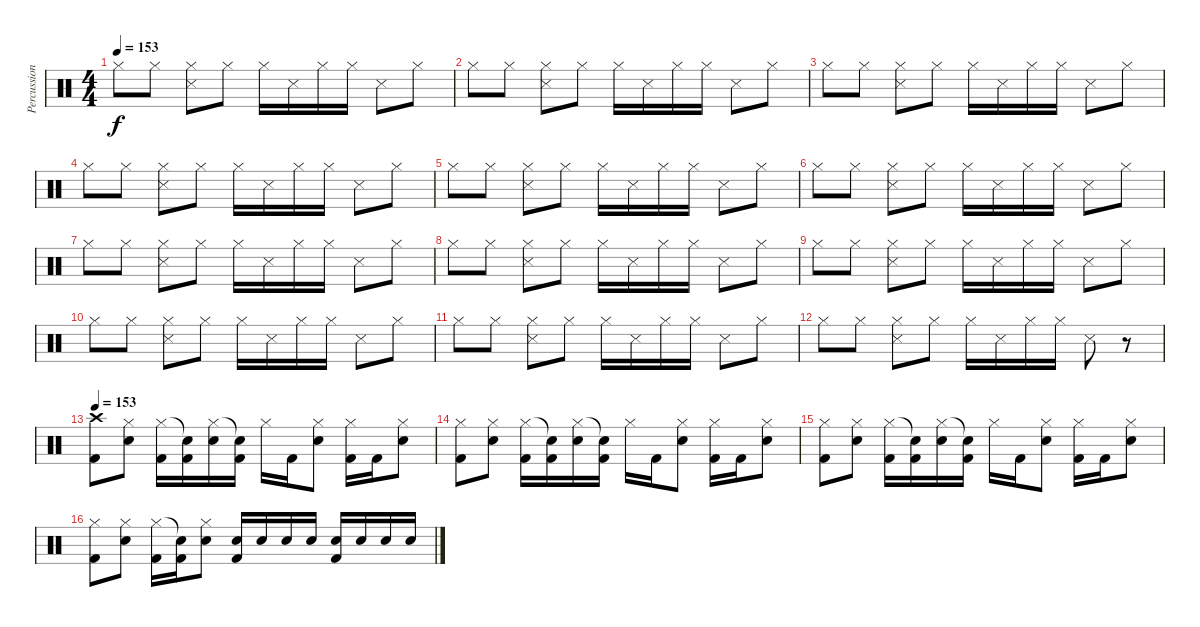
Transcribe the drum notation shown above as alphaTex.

\track ("Percussion" "Percussion") {instrument percussion}
\staff {score}
\articulation defaults
\ts (4 4)
\tempo 153
\clef neutral
\ks c "Hi-Hat (closed)".8{dy f} "Hi-Hat (closed)".8
("Hi-Hat (closed)" "Snare (side stick) 3").8 "Hi-Hat (closed)".8 "Hi-Hat (closed)".16 "Snare (side stick) 3".16 "Hi-Hat (closed)".16 "Hi-Hat (closed)".16 "Snare (side stick) 3".8 "Hi-Hat (closed)".8 |
"Hi-Hat (closed)".8 "Hi-Hat (closed)".8 ("Hi-Hat (closed)" "Snare (side stick) 3").8 "Hi-Hat (closed)".8 "Hi-Hat (closed)".16 "Snare (side stick) 3".16 "Hi-Hat (closed)".16 "Hi-Hat (closed)".16 "Snare (side stick) 3".8 "Hi-Hat (closed)".8 |
"Hi-Hat (closed)".8 "Hi-Hat (closed)".8 ("Hi-Hat (closed)" "Snare (side stick) 3").8 "Hi-Hat (closed)".8 "Hi-Hat (closed)".16 "Snare (side stick) 3".16 "Hi-Hat (closed)".16 "Hi-Hat (closed)".16 "Snare (side stick) 3".8 "Hi-Hat (closed)".8 |
"Hi-Hat (closed)".8 "Hi-Hat (closed)".8 ("Hi-Hat (closed)" "Snare (side stick) 3").8 "Hi-Hat (closed)".8 "Hi-Hat (closed)".16 "Snare (side stick) 3".16 "Hi-Hat (closed)".16 "Hi-Hat (closed)".16 "Snare (side stick) 3".8 "Hi-Hat (closed)".8 |
"Hi-Hat (closed)".8 "Hi-Hat (closed)".8 ("Hi-Hat (closed)" "Snare (side stick) 3").8 "Hi-Hat (closed)".8 "Hi-Hat (closed)".16 "Snare (side stick) 3".16 "Hi-Hat (closed)".16 "Hi-Hat (closed)".16 "Snare (side stick) 3".8 "Hi-Hat (closed)".8 |
"Hi-Hat (closed)".8 "Hi-Hat (closed)".8 ("Hi-Hat (closed)" "Snare (side stick) 3").8 "Hi-Hat (closed)".8 "Hi-Hat (closed)".16 "Snare (side stick) 3".16 "Hi-Hat (closed)".16 "Hi-Hat (closed)".16 "Snare (side stick) 3".8 "Hi-Hat (closed)".8 |
"Hi-Hat (closed)".8 "Hi-Hat (closed)".8 ("Hi-Hat (closed)" "Snare (side stick) 3").8 "Hi-Hat (closed)".8 "Hi-Hat (closed)".16 "Snare (side stick) 3".16 "Hi-Hat (closed)".16 "Hi-Hat (closed)".16 "Snare (side stick) 3".8 "Hi-Hat (closed)".8 |
"Hi-Hat (closed)".8 "Hi-Hat (closed)".8 ("Hi-Hat (closed)" "Snare (side stick) 3").8 "Hi-Hat (closed)".8 "Hi-Hat (closed)".16 "Snare (side stick) 3".16 "Hi-Hat (closed)".16 "Hi-Hat (closed)".16 "Snare (side stick) 3".8 "Hi-Hat (closed)".8 |
"Hi-Hat (closed)".8 "Hi-Hat (closed)".8 ("Hi-Hat (closed)" "Snare (side stick) 3").8 "Hi-Hat (closed)".8 "Hi-Hat (closed)".16 "Snare (side stick) 3".16 "Hi-Hat (closed)".16 "Hi-Hat (closed)".16 "Snare (side stick) 3".8 "Hi-Hat (closed)".8 |
"Hi-Hat (closed)".8 "Hi-Hat (closed)".8 ("Hi-Hat (closed)" "Snare (side stick) 3").8 "Hi-Hat (closed)".8 "Hi-Hat (closed)".16 "Snare (side stick) 3".16 "Hi-Hat (closed)".16 "Hi-Hat (closed)".16 "Snare (side stick) 3".8 "Hi-Hat (closed)".8 |
"Hi-Hat (closed)".8 "Hi-Hat (closed)".8 ("Hi-Hat (closed)" "Snare (side stick) 3").8 "Hi-Hat (closed)".8 "Hi-Hat (closed)".16 "Snare (side stick) 3".16 "Hi-Hat (closed)".16 "Hi-Hat (closed)".16 "Snare (side stick) 3".8 "Hi-Hat (closed)".8 |
"Hi-Hat (closed)".8 "Hi-Hat (closed)".8 ("Hi-Hat (closed)" "Snare (side stick) 3").8 "Hi-Hat (closed)".8 "Hi-Hat (closed)".16 "Snare (side stick) 3".16 "Hi-Hat (closed)".16 "Hi-Hat (closed)".16 "Snare (side stick) 3".8 r.8 |
\tempo 153
("Crash high (hit)" "Kick (hit) 2").8 ("Hi-Hat (closed)" "Snare (hit) 2").8 ("Hi-Hat (closed)" "Kick (hit) 2").16 ("Snare (hit)"{t} "Kick (hit) 2").16 ("Hi-Hat (closed)" "Snare (hit) 2").16 ("Snare (hit)"{t} "Kick (hit) 2").16 "Hi-Hat (closed)".16 "Kick (hit) 2".16 ("Hi-Hat (closed)" "Snare (hit) 2").8 ("Hi-Hat (closed)" "Kick (hit) 2").16 "Kick (hit) 2".16 ("Hi-Hat (closed)" "Snare (hit) 2").8 |
("Hi-Hat (closed)" "Kick (hit) 2").8 ("Hi-Hat (closed)" "Snare (hit) 2").8 ("Hi-Hat (closed)" "Kick (hit) 2").16 ("Snare (hit)"{t} "Kick (hit) 2").16 ("Hi-Hat (closed)" "Snare (hit) 2").16 ("Snare (hit)"{t} "Kick (hit) 2").16 "Hi-Hat (closed)".16 "Kick (hit) 2".16 ("Hi-Hat (closed)" "Snare (hit) 2").8 ("Hi-Hat (closed)" "Kick (hit) 2").16 "Kick (hit) 2".16 ("Hi-Hat (closed)" "Snare (hit) 2").8 |
("Hi-Hat (closed)" "Kick (hit) 2").8 ("Hi-Hat (closed)" "Snare (hit) 2").8 ("Hi-Hat (closed)" "Kick (hit) 2").16 ("Snare (hit)"{t} "Kick (hit) 2").16 ("Hi-Hat (closed)" "Snare (hit) 2").16 ("Snare (hit)"{t} "Kick (hit) 2").16 "Hi-Hat (closed)".16 "Kick (hit) 2".16 ("Hi-Hat (closed)" "Snare (hit) 2").8 ("Hi-Hat (closed)" "Kick (hit) 2").16 "Kick (hit) 2".16 ("Hi-Hat (closed)" "Snare (hit) 2").8 |
("Hi-Hat (closed)" "Kick (hit) 2").8 ("Hi-Hat (closed)" "Snare (hit) 2").8 ("Hi-Hat (closed)" "Kick (hit) 2").16 ("Snare (hit)"{t} "Kick (hit) 2").16 ("Hi-Hat (closed)" "Snare (hit) 2").8 ("Snare (hit) 2" "Kick (hit) 2").16 "Snare (hit) 2".16 "Snare (hit) 2".16 "Snare (hit) 2".16 ("Snare (hit) 2" "Kick (hit) 2").16 "Snare (hit) 2".16 "Snare (hit) 2".16 "Snare (hit) 2".16
